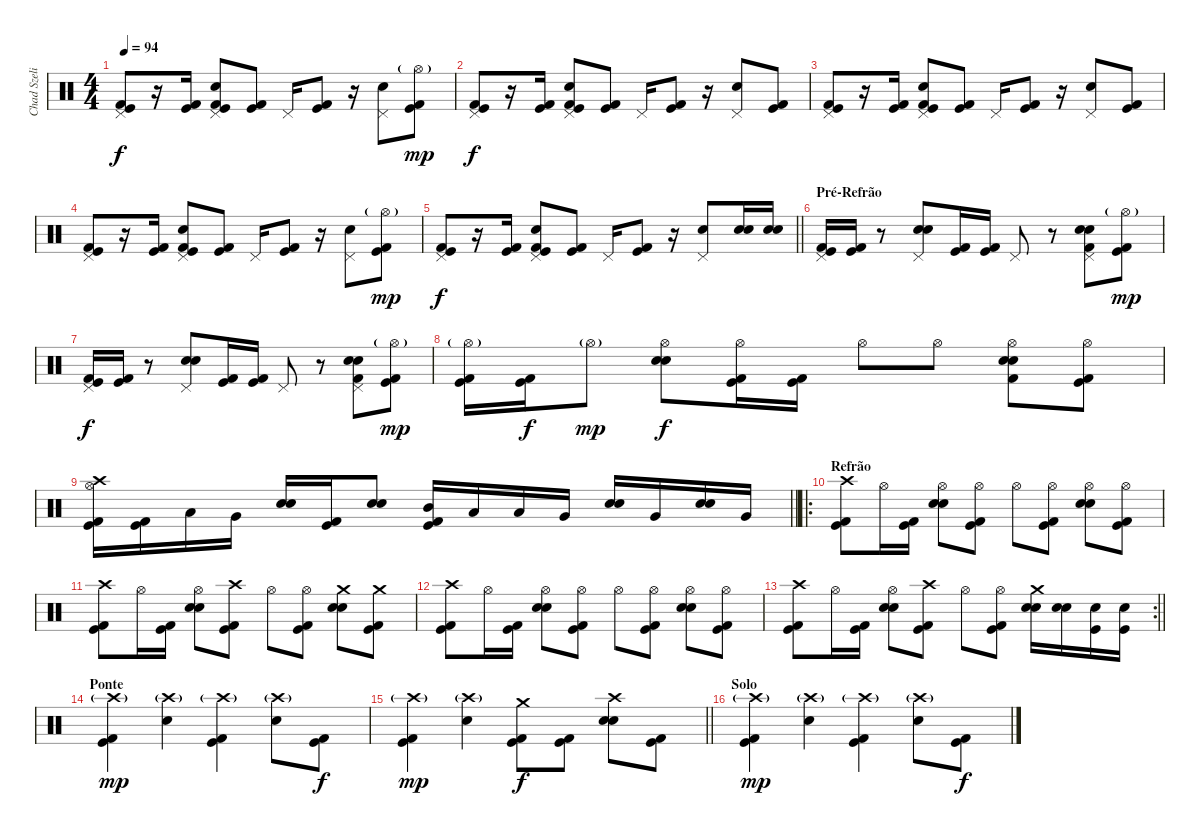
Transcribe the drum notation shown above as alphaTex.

\track ("Chad Szeliga" "Chad Szeli") {instrument percussion}
\staff {score}
\articulation defaults
\ts (4 4)
\tempo 94
\clef neutral
\ks c
("Kick (hit) 2" "Kick (hit)" "Pedal Hi-Hat (hit)").8{dy f} r.16 ("Kick (hit) 2" "Kick (hit)").16 ("Kick (hit) 2" "Kick (hit)" "Snare (hit) 2" "Pedal Hi-Hat (hit)").8 ("Kick (hit) 2" "Kick (hit)").8 "Pedal Hi-Hat (hit)".16 ("Kick (hit) 2" "Kick (hit)").8 r.16 ("Snare (hit) 2" "Pedal Hi-Hat (hit)").8 ("Kick (hit) 2" "Kick (hit)" "Hi-Hat (open)"{g}).8{dy mp} |
("Kick (hit) 2" "Kick (hit)" "Pedal Hi-Hat (hit)").8{dy f} r.16 ("Kick (hit) 2" "Kick (hit)").16 ("Kick (hit) 2" "Kick (hit)" "Snare (hit) 2" "Pedal Hi-Hat (hit)").8 ("Kick (hit) 2" "Kick (hit)").8 "Pedal Hi-Hat (hit)".16 ("Kick (hit) 2" "Kick (hit)").8 r.16 ("Snare (hit) 2" "Pedal Hi-Hat (hit)").8 ("Kick (hit) 2" "Kick (hit)").8 |
("Kick (hit) 2" "Kick (hit)" "Pedal Hi-Hat (hit)").8 r.16 ("Kick (hit) 2" "Kick (hit)").16 ("Kick (hit) 2" "Kick (hit)" "Snare (hit) 2" "Pedal Hi-Hat (hit)").8 ("Kick (hit) 2" "Kick (hit)").8 "Pedal Hi-Hat (hit)".16 ("Kick (hit) 2" "Kick (hit)").8 r.16 ("Snare (hit) 2" "Pedal Hi-Hat (hit)").8 ("Kick (hit) 2" "Kick (hit)").8 |
("Kick (hit) 2" "Kick (hit)" "Pedal Hi-Hat (hit)").8 r.16 ("Kick (hit) 2" "Kick (hit)").16 ("Kick (hit) 2" "Kick (hit)" "Snare (hit) 2" "Pedal Hi-Hat (hit)").8 ("Kick (hit) 2" "Kick (hit)").8 "Pedal Hi-Hat (hit)".16 ("Kick (hit) 2" "Kick (hit)").8 r.16 ("Snare (hit) 2" "Pedal Hi-Hat (hit)").8 ("Kick (hit) 2" "Kick (hit)" "Hi-Hat (open)"{g}).8{dy mp} |
\barLineRight lightlight
("Kick (hit) 2" "Kick (hit)" "Pedal Hi-Hat (hit)").8{dy f} r.16 ("Kick (hit) 2" "Kick (hit)").16 ("Kick (hit) 2" "Kick (hit)" "Snare (hit) 2" "Pedal Hi-Hat (hit)").8 ("Kick (hit) 2" "Kick (hit)").8 "Pedal Hi-Hat (hit)".16 ("Kick (hit) 2" "Kick (hit)").8 r.16 ("Snare (hit) 2" "Pedal Hi-Hat (hit)").8 ("Snare (hit) 2" "Snare (hit) 2").16 ("Snare (hit) 2" "Snare (hit) 2").16 |
\section ("" "Pré-Refrão")
("Kick (hit) 2" "Kick (hit)" "Pedal Hi-Hat (hit)").16 ("Kick (hit) 2" "Kick (hit)").16 r.8 ("Snare (hit) 2" "Snare (hit) 2" "Pedal Hi-Hat (hit)").8 ("Kick (hit) 2" "Kick (hit)").16 ("Kick (hit) 2" "Kick (hit)").16 "Pedal Hi-Hat (hit)".8 r.8 ("Kick (hit) 2" "Snare (hit) 2" "Snare (hit) 2" "Pedal Hi-Hat (hit)").8 ("Kick (hit) 2" "Kick (hit)" "Hi-Hat (open)"{g}).8{dy mp} |
("Kick (hit) 2" "Kick (hit)" "Pedal Hi-Hat (hit)").16{dy f} ("Kick (hit) 2" "Kick (hit)").16 r.8 ("Snare (hit) 2" "Snare (hit) 2" "Pedal Hi-Hat (hit)").8 ("Kick (hit) 2" "Kick (hit)").16 ("Kick (hit) 2" "Kick (hit)").16 "Pedal Hi-Hat (hit)".8 r.8 ("Kick (hit) 2" "Snare (hit) 2" "Snare (hit) 2" "Pedal Hi-Hat (hit)").8 ("Kick (hit) 2" "Kick (hit)" "Hi-Hat (open)"{g}).8{dy mp} |
("Kick (hit) 2" "Kick (hit)" "Hi-Hat (open)"{g}).16 ("Kick (hit) 2" "Kick (hit)").16{dy f} "Hi-Hat (open)"{g}.8{dy mp} ("Snare (hit) 2" "Snare (hit) 2" "Hi-Hat (open)").8{dy f} ("Kick (hit) 2" "Kick (hit)" "Hi-Hat (open)").16 ("Kick (hit) 2" "Kick (hit)").16 "Hi-Hat (open)".8 "Hi-Hat (open)".8 ("Kick (hit) 2" "Snare (hit) 2" "Snare (hit) 2" "Hi-Hat (open)").8 ("Kick (hit) 2" "Kick (hit)" "Hi-Hat (open)").8 |
\barLineRight lightlight
("Crash high (hit)" "Kick (hit) 2" "Kick (hit)" "Hi-Hat (open)").16 ("Kick (hit) 2" "Kick (hit)").16 "Low Tom (hit)".16 "Very Low Tom (hit)".16 ("Snare (hit) 2" "Snare (hit) 2").16 ("Kick (hit) 2" "Kick (hit)").16 ("Snare (hit) 2" "Snare (hit) 2").8 ("Kick (hit) 2" "Kick (hit)" "Mid Tom (hit)").16 "Low Tom (hit)".16 "Low Tom (hit)".16 "Very Low Tom (hit)".16 ("Snare (hit) 2" "Snare (hit) 2").16 "Very Low Tom (hit)".16 ("Snare (hit) 2" "Snare (hit) 2").16 "Very Low Tom (hit)".16 |
\ro
\section ("" "Refrão")
("Crash high (hit)" "Kick (hit) 2" "Kick (hit)").8 "Hi-Hat (open)".16 ("Kick (hit) 2" "Kick (hit)").16 ("Snare (hit) 2" "Snare (hit) 2" "Hi-Hat (open)").8 ("Kick (hit) 2" "Kick (hit)" "Hi-Hat (open)").8 "Hi-Hat (open)".8 ("Kick (hit) 2" "Kick (hit)" "Hi-Hat (open)").8 ("Snare (hit) 2" "Snare (hit) 2" "Hi-Hat (open)").8 ("Kick (hit) 2" "Kick (hit)" "Hi-Hat (open)").8 |
("Crash high (hit)" "Kick (hit) 2" "Kick (hit)").8 "Hi-Hat (open)".16 ("Kick (hit) 2" "Kick (hit)").16 ("Snare (hit) 2" "Snare (hit) 2" "Hi-Hat (open)").8 ("Crash high (hit)" "Kick (hit) 2" "Kick (hit)").8 "Hi-Hat (open)".8 ("Kick (hit) 2" "Kick (hit)" "Hi-Hat (open)").8 ("Crash medium (hit)" "Snare (hit) 2" "Snare (hit) 2").8 ("Crash medium (hit)" "Kick (hit) 2" "Kick (hit)").8 |
("Crash high (hit)" "Kick (hit) 2" "Kick (hit)").8 "Hi-Hat (open)".16 ("Kick (hit) 2" "Kick (hit)").16 ("Snare (hit) 2" "Snare (hit) 2" "Hi-Hat (open)").8 ("Kick (hit) 2" "Kick (hit)" "Hi-Hat (open)").8 "Hi-Hat (open)".8 ("Kick (hit) 2" "Kick (hit)" "Hi-Hat (open)").8 ("Snare (hit) 2" "Snare (hit) 2" "Hi-Hat (open)").8 ("Kick (hit) 2" "Kick (hit)" "Hi-Hat (open)").8 |
\rc 2
\barLineRight lightlight
("Crash high (hit)" "Kick (hit) 2" "Kick (hit)").8 "Hi-Hat (open)".16 ("Kick (hit) 2" "Kick (hit)").16 ("Snare (hit) 2" "Snare (hit) 2" "Hi-Hat (open)").8 ("Crash high (hit)" "Kick (hit) 2" "Kick (hit)").8 "Hi-Hat (open)".8 ("Kick (hit) 2" "Kick (hit)" "Hi-Hat (open)").8 ("Crash medium (hit)" "Snare (hit) 2" "Snare (hit) 2").16 ("Snare (hit) 2" "Snare (hit) 2").16 ("Kick (hit)" "Snare (hit) 2").16 ("Kick (hit)" "Snare (hit) 2").16 |
\section ("" "Ponte")
("Crash high (hit)"{g} "Kick (hit) 2" "Kick (hit)").4{dy mp} ("Crash high (hit)"{g} "Snare (hit) 2").4 ("Crash high (hit)"{g} "Kick (hit) 2" "Kick (hit)").4 ("Crash high (hit)"{g} "Snare (hit) 2").8 ("Kick (hit) 2" "Kick (hit)").8{dy f} |
\barLineRight lightlight
("Crash high (hit)"{g} "Kick (hit) 2" "Kick (hit)").4{dy mp} ("Crash high (hit)"{g} "Snare (hit) 2").4 ("Crash medium (hit)" "Kick (hit) 2" "Kick (hit)").8{dy f} ("Kick (hit) 2" "Kick (hit)").8 ("Crash high (hit)" "Snare (hit) 2" "Snare (hit) 2").8 ("Kick (hit) 2" "Kick (hit)").8 |
\section ("" "Solo")
("Crash high (hit)"{g} "Kick (hit) 2" "Kick (hit)").4{dy mp} ("Crash high (hit)"{g} "Snare (hit) 2").4 ("Crash high (hit)"{g} "Kick (hit) 2" "Kick (hit)").4 ("Crash high (hit)"{g} "Snare (hit) 2").8 ("Kick (hit) 2" "Kick (hit)").8{dy f}
